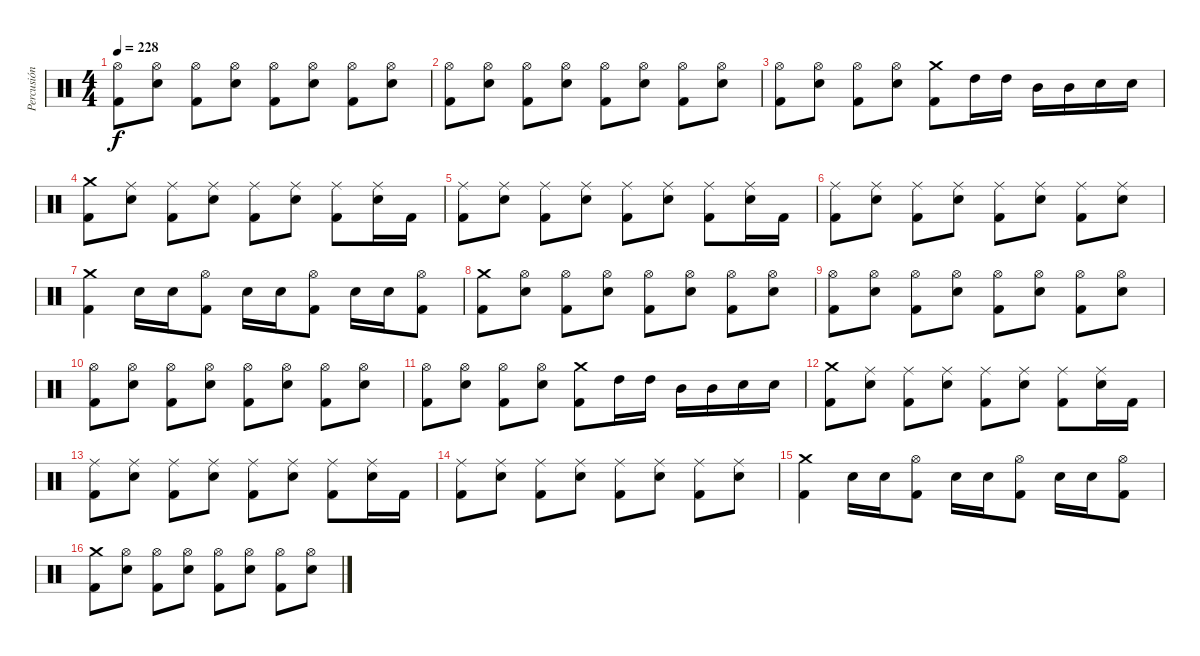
\track ("Percusión" "Percusión") {instrument percussion}
\staff {score}
\articulation defaults
\ts (4 4)
\tempo 228
\clef neutral
\ks c
("Hi-Hat (open)" "Kick (hit) 2").8{dy f} ("Hi-Hat (open)" "Electric Snare (hit)").8 ("Hi-Hat (open)" "Kick (hit) 2").8 ("Hi-Hat (open)" "Electric Snare (hit)").8 ("Hi-Hat (open)" "Kick (hit) 2").8 ("Hi-Hat (open)" "Electric Snare (hit)").8 ("Hi-Hat (open)" "Kick (hit) 2").8 ("Hi-Hat (open)" "Electric Snare (hit)").8 |
("Hi-Hat (open)" "Kick (hit) 2").8 ("Hi-Hat (open)" "Electric Snare (hit)").8 ("Hi-Hat (open)" "Kick (hit) 2").8 ("Hi-Hat (open)" "Electric Snare (hit)").8 ("Hi-Hat (open)" "Kick (hit) 2").8 ("Hi-Hat (open)" "Electric Snare (hit)").8 ("Hi-Hat (open)" "Kick (hit) 2").8 ("Hi-Hat (open)" "Electric Snare (hit)").8 |
("Hi-Hat (open)" "Kick (hit) 2").8 ("Hi-Hat (open)" "Electric Snare (hit)").8 ("Hi-Hat (open)" "Kick (hit) 2").8 ("Hi-Hat (open)" "Electric Snare (hit)").8 ("Crash medium (hit)" "Kick (hit) 2").8 "High Tom (hit)".16 "High Tom (hit)".16 "Mid Tom (hit)".16 "Mid Tom (hit)".16 "Electric Snare (hit)".16 "Electric Snare (hit)".16 |
("Kick (hit) 2" "Crash medium (hit)").8 ("Ride (middle)" "Electric Snare (hit)").8 ("Ride (middle)" "Kick (hit) 2").8 ("Ride (middle)" "Electric Snare (hit)").8 ("Ride (middle)" "Kick (hit) 2").8 ("Ride (middle)" "Electric Snare (hit)").8 ("Ride (middle)" "Kick (hit) 2").8 ("Ride (middle)" "Electric Snare (hit)").16 "Kick (hit) 2".16 |
("Ride (middle)" "Kick (hit) 2").8 ("Ride (middle)" "Electric Snare (hit)").8 ("Ride (middle)" "Kick (hit) 2").8 ("Ride (middle)" "Electric Snare (hit)").8 ("Ride (middle)" "Kick (hit) 2").8 ("Ride (middle)" "Electric Snare (hit)").8 ("Ride (middle)" "Kick (hit) 2").8 ("Ride (middle)" "Electric Snare (hit)").16 "Kick (hit) 2".16 |
("Ride (middle)" "Kick (hit) 2").8 ("Ride (middle)" "Electric Snare (hit)").8 ("Ride (middle)" "Kick (hit) 2").8 ("Ride (middle)" "Electric Snare (hit)").8 ("Ride (middle)" "Kick (hit) 2").8 ("Ride (middle)" "Electric Snare (hit)").8 ("Ride (middle)" "Kick (hit) 2").8 ("Ride (middle)" "Electric Snare (hit)").8 |
("Crash medium (hit)" "Kick (hit) 2").4 "Electric Snare (hit)".16 "Electric Snare (hit)".16 ("Hi-Hat (open)" "Kick (hit) 2").8 "Electric Snare (hit)".16 "Electric Snare (hit)".16 ("Kick (hit) 2" "Hi-Hat (open)").8 "Electric Snare (hit)".16 "Electric Snare (hit)".16 ("Hi-Hat (open)" "Kick (hit) 2").8 |
("Kick (hit) 2" "Crash medium (hit)").8 ("Hi-Hat (open)" "Electric Snare (hit)").8 ("Hi-Hat (open)" "Kick (hit) 2").8 ("Hi-Hat (open)" "Electric Snare (hit)").8 ("Hi-Hat (open)" "Kick (hit) 2").8 ("Hi-Hat (open)" "Electric Snare (hit)").8 ("Hi-Hat (open)" "Kick (hit) 2").8 ("Hi-Hat (open)" "Electric Snare (hit)").8 |
("Hi-Hat (open)" "Kick (hit) 2").8 ("Hi-Hat (open)" "Electric Snare (hit)").8 ("Hi-Hat (open)" "Kick (hit) 2").8 ("Hi-Hat (open)" "Electric Snare (hit)").8 ("Hi-Hat (open)" "Kick (hit) 2").8 ("Hi-Hat (open)" "Electric Snare (hit)").8 ("Hi-Hat (open)" "Kick (hit) 2").8 ("Hi-Hat (open)" "Electric Snare (hit)").8 |
("Hi-Hat (open)" "Kick (hit) 2").8 ("Hi-Hat (open)" "Electric Snare (hit)").8 ("Hi-Hat (open)" "Kick (hit) 2").8 ("Hi-Hat (open)" "Electric Snare (hit)").8 ("Hi-Hat (open)" "Kick (hit) 2").8 ("Hi-Hat (open)" "Electric Snare (hit)").8 ("Hi-Hat (open)" "Kick (hit) 2").8 ("Hi-Hat (open)" "Electric Snare (hit)").8 |
("Hi-Hat (open)" "Kick (hit) 2").8 ("Hi-Hat (open)" "Electric Snare (hit)").8 ("Hi-Hat (open)" "Kick (hit) 2").8 ("Hi-Hat (open)" "Electric Snare (hit)").8 ("Crash medium (hit)" "Kick (hit) 2").8 "High Tom (hit)".16 "High Tom (hit)".16 "Mid Tom (hit)".16 "Mid Tom (hit)".16 "Electric Snare (hit)".16 "Electric Snare (hit)".16 |
("Kick (hit) 2" "Crash medium (hit)").8 ("Ride (middle)" "Electric Snare (hit)").8 ("Ride (middle)" "Kick (hit) 2").8 ("Ride (middle)" "Electric Snare (hit)").8 ("Ride (middle)" "Kick (hit) 2").8 ("Ride (middle)" "Electric Snare (hit)").8 ("Ride (middle)" "Kick (hit) 2").8 ("Ride (middle)" "Electric Snare (hit)").16 "Kick (hit) 2".16 |
("Ride (middle)" "Kick (hit) 2").8 ("Ride (middle)" "Electric Snare (hit)").8 ("Ride (middle)" "Kick (hit) 2").8 ("Ride (middle)" "Electric Snare (hit)").8 ("Ride (middle)" "Kick (hit) 2").8 ("Ride (middle)" "Electric Snare (hit)").8 ("Ride (middle)" "Kick (hit) 2").8 ("Ride (middle)" "Electric Snare (hit)").16 "Kick (hit) 2".16 |
("Ride (middle)" "Kick (hit) 2").8 ("Ride (middle)" "Electric Snare (hit)").8 ("Ride (middle)" "Kick (hit) 2").8 ("Ride (middle)" "Electric Snare (hit)").8 ("Ride (middle)" "Kick (hit) 2").8 ("Ride (middle)" "Electric Snare (hit)").8 ("Ride (middle)" "Kick (hit) 2").8 ("Ride (middle)" "Electric Snare (hit)").8 |
("Crash medium (hit)" "Kick (hit) 2").4 "Electric Snare (hit)".16 "Electric Snare (hit)".16 ("Hi-Hat (open)" "Kick (hit) 2").8 "Electric Snare (hit)".16 "Electric Snare (hit)".16 ("Kick (hit) 2" "Hi-Hat (open)").8 "Electric Snare (hit)".16 "Electric Snare (hit)".16 ("Hi-Hat (open)" "Kick (hit) 2").8 |
("Kick (hit) 2" "Crash medium (hit)").8 ("Hi-Hat (open)" "Electric Snare (hit)").8 ("Hi-Hat (open)" "Kick (hit) 2").8 ("Hi-Hat (open)" "Electric Snare (hit)").8 ("Hi-Hat (open)" "Kick (hit) 2").8 ("Hi-Hat (open)" "Electric Snare (hit)").8 ("Hi-Hat (open)" "Kick (hit) 2").8 ("Hi-Hat (open)" "Electric Snare (hit)").8
